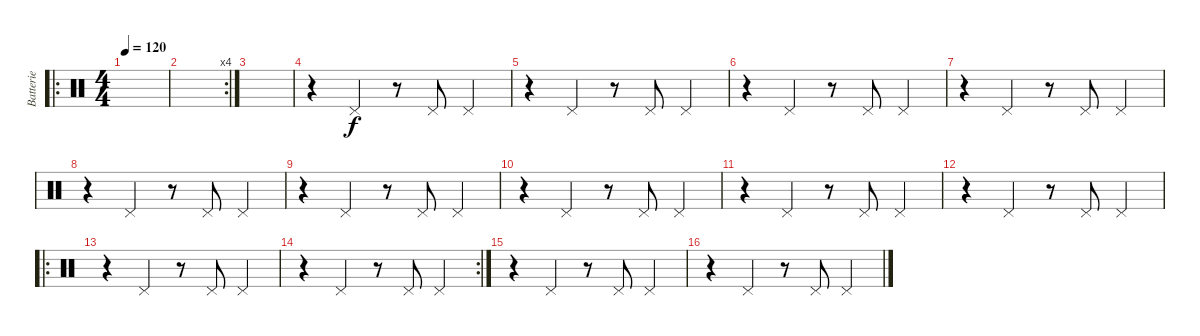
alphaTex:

\track ("Batterie" "Batterie") {instrument percussion}
\staff {score}
\articulation defaults
\ro
\ts (4 4)
\tempo 120
\clef neutral
\ks c
|
\rc 4
|
|
r.4 "Pedal Hi-Hat (hit)".4 r.8 "Pedal Hi-Hat (hit)".8 "Pedal Hi-Hat (hit)".4 |
r.4 "Pedal Hi-Hat (hit)".4 r.8 "Pedal Hi-Hat (hit)".8 "Pedal Hi-Hat (hit)".4 |
r.4 "Pedal Hi-Hat (hit)".4 r.8 "Pedal Hi-Hat (hit)".8 "Pedal Hi-Hat (hit)".4 |
r.4 "Pedal Hi-Hat (hit)".4 r.8 "Pedal Hi-Hat (hit)".8 "Pedal Hi-Hat (hit)".4 |
r.4 "Pedal Hi-Hat (hit)".4 r.8 "Pedal Hi-Hat (hit)".8 "Pedal Hi-Hat (hit)".4 |
r.4 "Pedal Hi-Hat (hit)".4 r.8 "Pedal Hi-Hat (hit)".8 "Pedal Hi-Hat (hit)".4 |
r.4 "Pedal Hi-Hat (hit)".4 r.8 "Pedal Hi-Hat (hit)".8 "Pedal Hi-Hat (hit)".4 |
r.4 "Pedal Hi-Hat (hit)".4 r.8 "Pedal Hi-Hat (hit)".8 "Pedal Hi-Hat (hit)".4 |
r.4 "Pedal Hi-Hat (hit)".4 r.8 "Pedal Hi-Hat (hit)".8 "Pedal Hi-Hat (hit)".4 |
\ro
r.4 "Pedal Hi-Hat (hit)".4 r.8 "Pedal Hi-Hat (hit)".8 "Pedal Hi-Hat (hit)".4 |
\rc 2
r.4 "Pedal Hi-Hat (hit)".4 r.8 "Pedal Hi-Hat (hit)".8 "Pedal Hi-Hat (hit)".4 |
r.4 "Pedal Hi-Hat (hit)".4 r.8 "Pedal Hi-Hat (hit)".8 "Pedal Hi-Hat (hit)".4 |
r.4 "Pedal Hi-Hat (hit)".4 r.8 "Pedal Hi-Hat (hit)".8 "Pedal Hi-Hat (hit)".4
